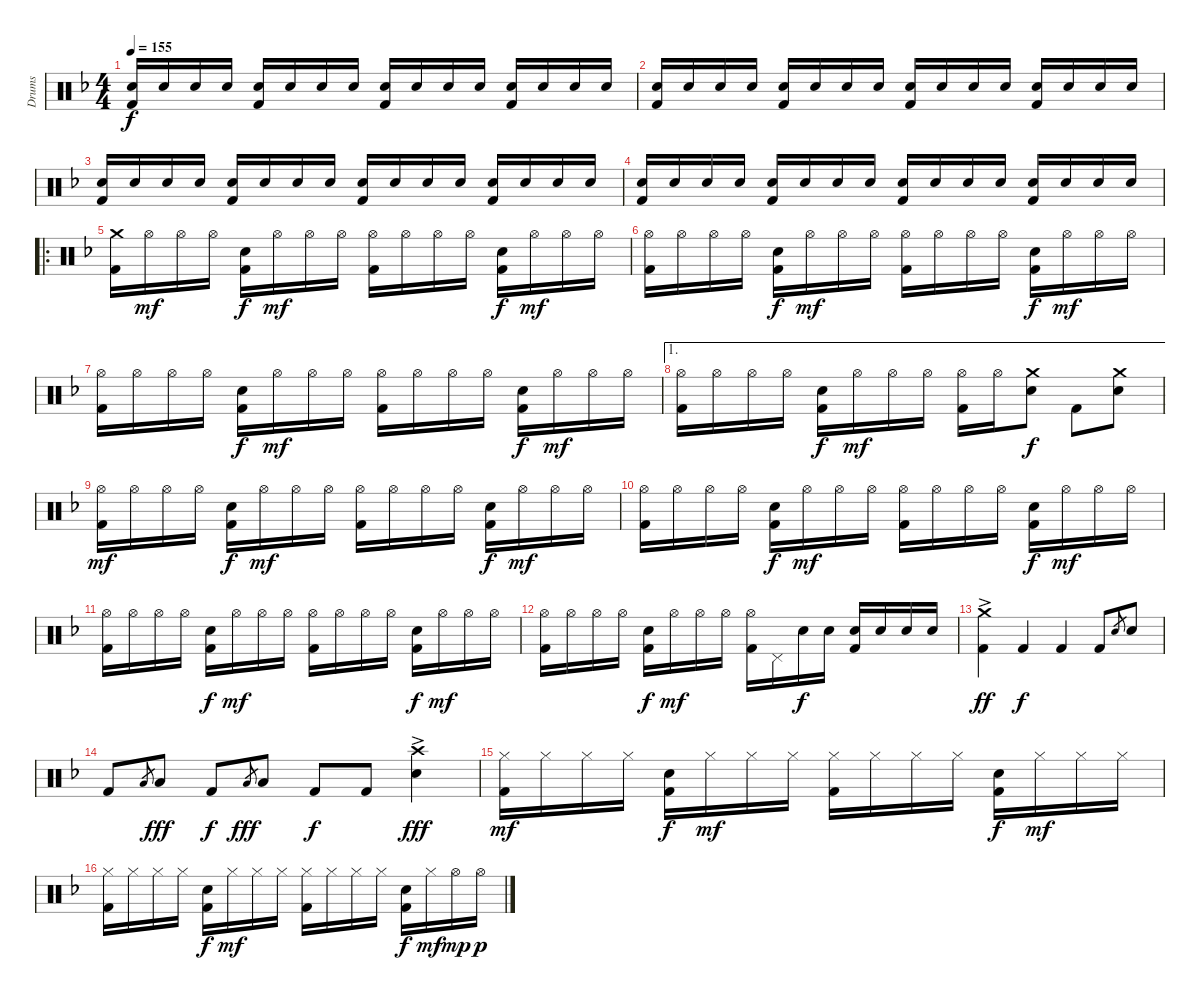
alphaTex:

\track ("Drums" "Drums") {instrument percussion}
\staff {score}
\articulation defaults
\ts (4 4)
\tempo 155
\clef neutral
\ks dminor
("Snare (hit) 2" "Kick (hit) 2").16{dy f volume 9} "Snare (hit) 2".16{volume 14} "Snare (hit) 2".16 "Snare (hit) 2".16 ("Snare (hit) 2" "Kick (hit) 2").16 "Snare (hit) 2".16 "Snare (hit) 2".16 "Snare (hit) 2".16 ("Snare (hit) 2" "Kick (hit) 2").16 "Snare (hit) 2".16 "Snare (hit) 2".16 "Snare (hit) 2".16 ("Snare (hit) 2" "Kick (hit) 2").16 "Snare (hit) 2".16 "Snare (hit) 2".16 "Snare (hit) 2".16 |
("Snare (hit) 2" "Kick (hit) 2").16 "Snare (hit) 2".16 "Snare (hit) 2".16 "Snare (hit) 2".16 ("Snare (hit) 2" "Kick (hit) 2").16 "Snare (hit) 2".16 "Snare (hit) 2".16 "Snare (hit) 2".16 ("Snare (hit) 2" "Kick (hit) 2").16 "Snare (hit) 2".16 "Snare (hit) 2".16 "Snare (hit) 2".16 ("Snare (hit) 2" "Kick (hit) 2").16 "Snare (hit) 2".16 "Snare (hit) 2".16 "Snare (hit) 2".16 |
("Snare (hit) 2" "Kick (hit) 2").16 "Snare (hit) 2".16 "Snare (hit) 2".16 "Snare (hit) 2".16 ("Snare (hit) 2" "Kick (hit) 2").16 "Snare (hit) 2".16 "Snare (hit) 2".16 "Snare (hit) 2".16 ("Snare (hit) 2" "Kick (hit) 2").16 "Snare (hit) 2".16 "Snare (hit) 2".16 "Snare (hit) 2".16 ("Snare (hit) 2" "Kick (hit) 2").16 "Snare (hit) 2".16 "Snare (hit) 2".16 "Snare (hit) 2".16 |
("Snare (hit) 2" "Kick (hit) 2").16 "Snare (hit) 2".16 "Snare (hit) 2".16 "Snare (hit) 2".16 ("Snare (hit) 2" "Kick (hit) 2").16 "Snare (hit) 2".16 "Snare (hit) 2".16 "Snare (hit) 2".16 ("Snare (hit) 2" "Kick (hit) 2").16 "Snare (hit) 2".16 "Snare (hit) 2".16 "Snare (hit) 2".16 ("Snare (hit) 2" "Kick (hit) 2").16 "Snare (hit) 2".16 "Snare (hit) 2".16 "Snare (hit) 2".16 |
\ro
("Crash medium (hit)" "Kick (hit) 2").16 "Hi-Hat (open)".16{dy mf} "Hi-Hat (open)".16 "Hi-Hat (open)".16 ("Snare (hit) 2" "Kick (hit) 2").16{dy f} "Hi-Hat (open)".16{dy mf} "Hi-Hat (open)".16 "Hi-Hat (open)".16 ("Hi-Hat (open)" "Kick (hit) 2").16 "Hi-Hat (open)".16 "Hi-Hat (open)".16 "Hi-Hat (open)".16 ("Snare (hit) 2" "Kick (hit) 2").16{dy f} "Hi-Hat (open)".16{dy mf} "Hi-Hat (open)".16 "Hi-Hat (open)".16 |
("Hi-Hat (open)" "Kick (hit) 2").16 "Hi-Hat (open)".16 "Hi-Hat (open)".16 "Hi-Hat (open)".16 ("Snare (hit) 2" "Kick (hit) 2").16{dy f} "Hi-Hat (open)".16{dy mf} "Hi-Hat (open)".16 "Hi-Hat (open)".16 ("Hi-Hat (open)" "Kick (hit) 2").16 "Hi-Hat (open)".16 "Hi-Hat (open)".16 "Hi-Hat (open)".16 ("Snare (hit) 2" "Kick (hit) 2").16{dy f} "Hi-Hat (open)".16{dy mf} "Hi-Hat (open)".16 "Hi-Hat (open)".16 |
("Hi-Hat (open)" "Kick (hit) 2").16 "Hi-Hat (open)".16 "Hi-Hat (open)".16 "Hi-Hat (open)".16 ("Snare (hit) 2" "Kick (hit) 2").16{dy f} "Hi-Hat (open)".16{dy mf} "Hi-Hat (open)".16 "Hi-Hat (open)".16 ("Hi-Hat (open)" "Kick (hit) 2").16 "Hi-Hat (open)".16 "Hi-Hat (open)".16 "Hi-Hat (open)".16 ("Snare (hit) 2" "Kick (hit) 2").16{dy f} "Hi-Hat (open)".16{dy mf} "Hi-Hat (open)".16 "Hi-Hat (open)".16 |
\ae 1
("Hi-Hat (open)" "Kick (hit) 2").16 "Hi-Hat (open)".16 "Hi-Hat (open)".16 "Hi-Hat (open)".16 ("Snare (hit) 2" "Kick (hit) 2").16{dy f} "Hi-Hat (open)".16{dy mf} "Hi-Hat (open)".16 "Hi-Hat (open)".16 ("Hi-Hat (open)" "Kick (hit) 2").16 "Hi-Hat (open)".16 ("Crash medium (hit)" "Snare (hit) 2").8{dy f} "Kick (hit) 2".8 ("Crash medium (hit)" "Snare (hit) 2").8 |
("Hi-Hat (open)" "Kick (hit) 2").16{dy mf} "Hi-Hat (open)".16 "Hi-Hat (open)".16 "Hi-Hat (open)".16 ("Snare (hit) 2" "Kick (hit) 2").16{dy f} "Hi-Hat (open)".16{dy mf} "Hi-Hat (open)".16 "Hi-Hat (open)".16 ("Hi-Hat (open)" "Kick (hit) 2").16 "Hi-Hat (open)".16 "Hi-Hat (open)".16 "Hi-Hat (open)".16 ("Snare (hit) 2" "Kick (hit) 2").16{dy f} "Hi-Hat (open)".16{dy mf} "Hi-Hat (open)".16 "Hi-Hat (open)".16 |
("Hi-Hat (open)" "Kick (hit) 2").16 "Hi-Hat (open)".16 "Hi-Hat (open)".16 "Hi-Hat (open)".16 ("Snare (hit) 2" "Kick (hit) 2").16{dy f} "Hi-Hat (open)".16{dy mf} "Hi-Hat (open)".16 "Hi-Hat (open)".16 ("Hi-Hat (open)" "Kick (hit) 2").16 "Hi-Hat (open)".16 "Hi-Hat (open)".16 "Hi-Hat (open)".16 ("Snare (hit) 2" "Kick (hit) 2").16{dy f} "Hi-Hat (open)".16{dy mf} "Hi-Hat (open)".16 "Hi-Hat (open)".16 |
("Hi-Hat (open)" "Kick (hit) 2").16 "Hi-Hat (open)".16 "Hi-Hat (open)".16 "Hi-Hat (open)".16 ("Snare (hit) 2" "Kick (hit) 2").16{dy f} "Hi-Hat (open)".16{dy mf} "Hi-Hat (open)".16 "Hi-Hat (open)".16 ("Hi-Hat (open)" "Kick (hit) 2").16 "Hi-Hat (open)".16 "Hi-Hat (open)".16 "Hi-Hat (open)".16 ("Snare (hit) 2" "Kick (hit) 2").16{dy f} "Hi-Hat (open)".16{dy mf} "Hi-Hat (open)".16 "Hi-Hat (open)".16 |
("Hi-Hat (open)" "Kick (hit) 2").16 "Hi-Hat (open)".16 "Hi-Hat (open)".16 "Hi-Hat (open)".16 ("Snare (hit) 2" "Kick (hit) 2").16{dy f} "Hi-Hat (open)".16{dy mf} "Hi-Hat (open)".16 "Hi-Hat (open)".16 ("Hi-Hat (open)" "Kick (hit) 2").16 "Pedal Hi-Hat (hit)".16 "Snare (hit) 2".16{dy f} "Snare (hit) 2".16 ("Snare (hit) 2" "Kick (hit) 2").16 "Snare (hit) 2".16 "Snare (hit) 2".16 "Snare (hit) 2".16 |
("Crash medium (hit)"{ac} "Kick (hit) 2").4{dy ff} "Kick (hit) 2".4{dy f} "Kick (hit) 2".4 "Kick (hit) 2".8 "Snare (hit) 2".8{gr} "Snare (hit) 2".8 |
"Kick (hit) 2".8 "Low Tom (hit)".8{gr} "Low Tom (hit)".8{dy fff} "Kick (hit) 2".8{dy f} "Low Floor Tom (hit)".8{gr dy fff} "Low Floor Tom (hit)".8 "Kick (hit) 2".8{dy f} "Kick (hit) 2".8 ("Crash high (hit)" "Snare (hit) 2"{ac}).4{dy fff} |
("Hi-Hat (closed)" "Kick (hit) 2").16{dy mf} "Hi-Hat (closed)".16 "Hi-Hat (closed)".16 "Hi-Hat (closed)".16 ("Snare (hit) 2" "Kick (hit) 2").16{dy f} "Hi-Hat (closed)".16{dy mf} "Hi-Hat (closed)".16 "Hi-Hat (closed)".16 ("Hi-Hat (closed)" "Kick (hit) 2").16 "Hi-Hat (closed)".16 "Hi-Hat (closed)".16 "Hi-Hat (closed)".16 ("Snare (hit) 2" "Kick (hit) 2").16{dy f} "Hi-Hat (closed)".16{dy mf} "Hi-Hat (closed)".16 "Hi-Hat (closed)".16 |
("Hi-Hat (closed)" "Kick (hit) 2").16 "Hi-Hat (closed)".16 "Hi-Hat (closed)".16 "Hi-Hat (closed)".16 ("Snare (hit) 2" "Kick (hit) 2").16{dy f} "Hi-Hat (closed)".16{dy mf} "Hi-Hat (closed)".16 "Hi-Hat (closed)".16 ("Hi-Hat (closed)" "Kick (hit) 2").16 "Hi-Hat (closed)".16 "Hi-Hat (closed)".16 "Hi-Hat (closed)".16 ("Snare (hit) 2" "Kick (hit) 2").16{dy f} "Hi-Hat (closed)".16{dy mf} "Hi-Hat (open)".16{dy mp} "Hi-Hat (open)".16{dy p}
